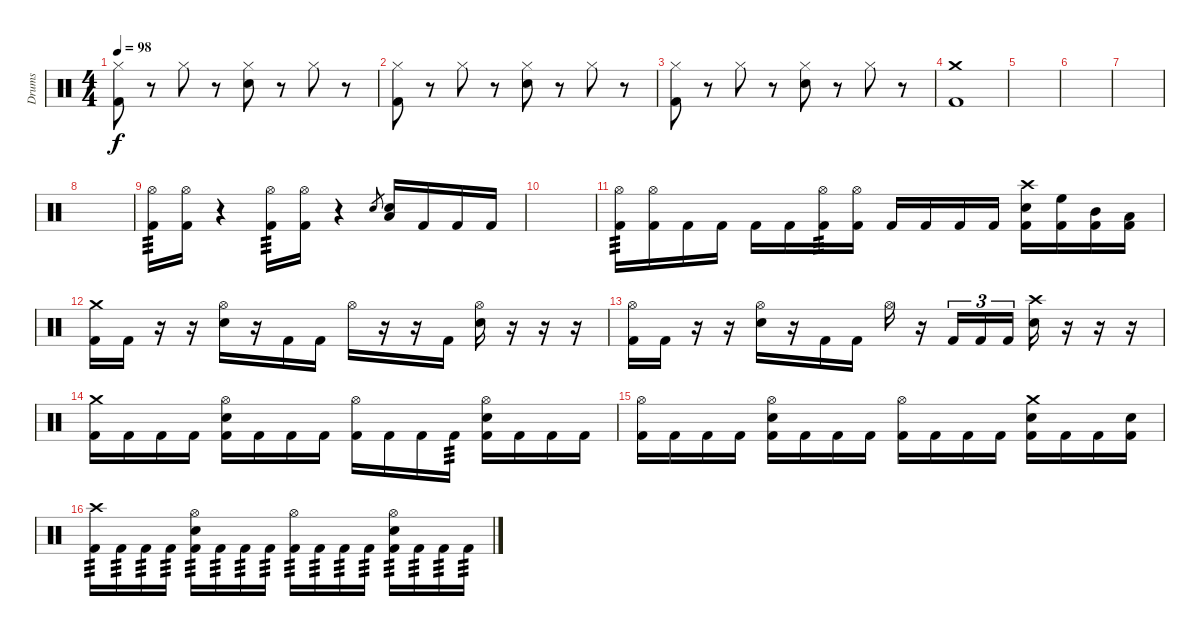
\track ("Drums" "Drums") {instrument percussion}
\staff {score}
\articulation defaults
\ts (4 4)
\tempo 98
\clef neutral
\ks c
("Hi-Hat (closed)" "Kick (hit) 2").8{dy f} r.8 "Hi-Hat (closed)".8 r.8 ("Hi-Hat (closed)" "Electric Snare (hit)").8 r.8 "Hi-Hat (closed)".8 r.8 |
("Hi-Hat (closed)" "Kick (hit) 2").8 r.8 "Hi-Hat (closed)".8 r.8 ("Hi-Hat (closed)" "Electric Snare (hit)").8 r.8 "Hi-Hat (closed)".8 r.8 |
("Hi-Hat (closed)" "Kick (hit) 2").8 r.8 "Hi-Hat (closed)".8 r.8 ("Hi-Hat (closed)" "Electric Snare (hit)").8 r.8 "Hi-Hat (closed)".8 r.8 |
("Crash medium (hit)" "Kick (hit) 2").1 |
|
|
|
\section ("" "")
|
("Hi-Hat (open)" "Kick (hit) 2").16{tp 3} ("Hi-Hat (open)" "Kick (hit) 2").16 r.4 ("Hi-Hat (open)" "Kick (hit) 2").16{tp 3} ("Hi-Hat (open)" "Kick (hit) 2").16 r.4 "Electric Snare (hit)".8{gr} ("Electric Snare (hit)" "Low Floor Tom (hit)").16 "Kick (hit) 2".16 "Kick (hit) 2".16 "Kick (hit) 2".16 |
|
("Hi-Hat (open)" "Kick (hit) 2").16{tp 3} ("Hi-Hat (open)" "Kick (hit) 2").16 "Kick (hit) 2".16 "Kick (hit) 2".16 "Kick (hit) 2".16 "Kick (hit) 2".16 ("Hi-Hat (open)" "Kick (hit) 2").16{tp 3} ("Hi-Hat (open)" "Kick (hit) 2").16 "Kick (hit) 2".16 "Kick (hit) 2".16 "Kick (hit) 2".16 "Kick (hit) 2".16 ("Crash high (hit)" "Electric Snare (hit)" "Kick (hit) 2").16 ("High Floor Tom (hit)" "Kick (hit) 2").16 ("Mid Tom (hit)" "Kick (hit) 2").16 ("Low Tom (hit)" "Kick (hit) 2").16 |
("Crash medium (hit)" "Kick (hit) 2").16 "Kick (hit) 2".16 r.16 r.16 ("Hi-Hat (open)" "Electric Snare (hit)").16 r.16 "Kick (hit) 2".16 "Kick (hit) 2".16 "Hi-Hat (open)".16 r.16 r.16 "Kick (hit) 2".16 ("Hi-Hat (open)" "Electric Snare (hit)").16 r.16 r.16 r.16 |
("Hi-Hat (open)" "Kick (hit) 2").16 "Kick (hit) 2".16 r.16 r.16 ("Hi-Hat (open)" "Electric Snare (hit)").16 r.16 "Kick (hit) 2".16 "Kick (hit) 2".16 "Hi-Hat (open)".16 r.16 "Kick (hit) 2".16{tu (3 2)} "Kick (hit) 2".16{tu (3 2)} "Kick (hit) 2".16{tu (3 2)} ("Crash high (hit)" "Electric Snare (hit)").16 r.16 r.16 r.16 |
("Crash medium (hit)" "Kick (hit) 2").16 "Kick (hit) 2".16 "Kick (hit) 2".16 "Kick (hit) 2".16 ("Hi-Hat (open)" "Electric Snare (hit)" "Kick (hit) 2").16 "Kick (hit) 2".16 "Kick (hit) 2".16 "Kick (hit) 2".16 ("Hi-Hat (open)" "Kick (hit) 2").16 "Kick (hit) 2".16 "Kick (hit) 2".16 "Kick (hit) 2".16{tp 3} ("Hi-Hat (open)" "Electric Snare (hit)" "Kick (hit) 2").16 "Kick (hit) 2".16 "Kick (hit) 2".16 "Kick (hit) 2".16 |
("Hi-Hat (open)" "Kick (hit) 2").16 "Kick (hit) 2".16 "Kick (hit) 2".16 "Kick (hit) 2".16 ("Hi-Hat (open)" "Electric Snare (hit)" "Kick (hit) 2").16 "Kick (hit) 2".16 "Kick (hit) 2".16 "Kick (hit) 2".16 ("Hi-Hat (open)" "Kick (hit) 2").16 "Kick (hit) 2".16 "Kick (hit) 2".16 "Kick (hit) 2".16 ("Crash medium (hit)" "Electric Snare (hit)" "Kick (hit) 2").16 "Kick (hit) 2".16 "Kick (hit) 2".16 ("Electric Snare (hit)" "Kick (hit) 2").16 |
("Crash high (hit)" "Kick (hit) 2").16{tp 3} "Kick (hit) 2".16{tp 3} "Kick (hit) 2".16{tp 3} "Kick (hit) 2".16{tp 3} ("Hi-Hat (open)" "Electric Snare (hit)" "Kick (hit) 2").16{tp 3} "Kick (hit) 2".16{tp 3} "Kick (hit) 2".16{tp 3} "Kick (hit) 2".16{tp 3} ("Hi-Hat (open)" "Kick (hit) 2").16{tp 3} "Kick (hit) 2".16{tp 3} "Kick (hit) 2".16{tp 3} "Kick (hit) 2".16{tp 3} ("Hi-Hat (open)" "Electric Snare (hit)" "Kick (hit) 2").16{tp 3} "Kick (hit) 2".16{tp 3} "Kick (hit) 2".16{tp 3} "Kick (hit) 2".16{tp 3}
